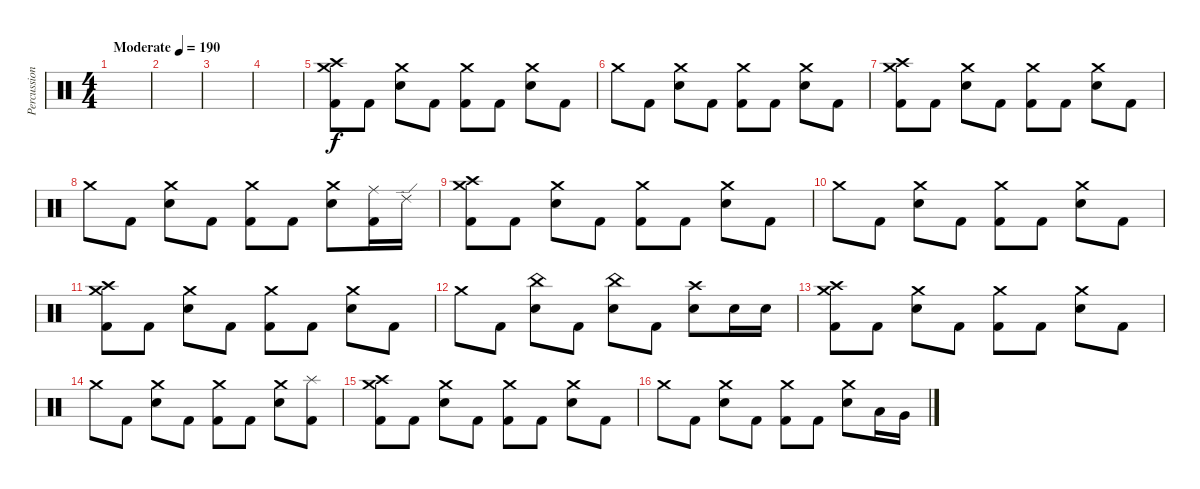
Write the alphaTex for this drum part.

\track ("Percussion" "Percussion") {instrument percussion}
\staff {score}
\articulation defaults
\ts (4 4)
\tempo (190 "Moderate")
\clef neutral
\ks c
|
|
|
|
("Crash high (hit)" "Crash medium (hit)" "Kick (hit) 2").8 "Kick (hit) 2".8 ("Crash medium (hit)" "Electric Snare (hit)").8 "Kick (hit) 2".8 ("Crash medium (hit)" "Kick (hit) 2").8 "Kick (hit) 2".8 ("Crash medium (hit)" "Electric Snare (hit)").8 "Kick (hit) 2".8 |
"Crash medium (hit)".8 "Kick (hit) 2".8 ("Crash medium (hit)" "Electric Snare (hit)").8 "Kick (hit) 2".8 ("Crash medium (hit)" "Kick (hit) 2").8 "Kick (hit) 2".8 ("Crash medium (hit)" "Electric Snare (hit)").8 "Kick (hit) 2".8 |
("Crash high (hit)" "Crash medium (hit)" "Kick (hit) 2").8 "Kick (hit) 2".8 ("Crash medium (hit)" "Electric Snare (hit)").8 "Kick (hit) 2".8 ("Crash medium (hit)" "Kick (hit) 2").8 "Kick (hit) 2".8 ("Crash medium (hit)" "Electric Snare (hit)").8 "Kick (hit) 2".8 |
"Crash medium (hit)".8 "Kick (hit) 2".8 ("Crash medium (hit)" "Electric Snare (hit)").8 "Kick (hit) 2".8 ("Crash medium (hit)" "Kick (hit) 2").8 "Kick (hit) 2".8 ("Crash medium (hit)" "Electric Snare (hit)").8 ("Ride (middle)" "Kick (hit) 2").16 "Ride (edge) 2".16 |
("Crash high (hit)" "Crash medium (hit)" "Kick (hit) 2").8 "Kick (hit) 2".8 ("Crash medium (hit)" "Electric Snare (hit)").8 "Kick (hit) 2".8 ("Crash medium (hit)" "Kick (hit) 2").8 "Kick (hit) 2".8 ("Crash medium (hit)" "Electric Snare (hit)").8 "Kick (hit) 2".8 |
"Crash medium (hit)".8 "Kick (hit) 2".8 ("Crash medium (hit)" "Electric Snare (hit)").8 "Kick (hit) 2".8 ("Crash medium (hit)" "Kick (hit) 2").8 "Kick (hit) 2".8 ("Crash medium (hit)" "Electric Snare (hit)").8 "Kick (hit) 2".8 |
("Crash high (hit)" "Crash medium (hit)" "Kick (hit) 2").8 "Kick (hit) 2".8 ("Crash medium (hit)" "Electric Snare (hit)").8 "Kick (hit) 2".8 ("Crash medium (hit)" "Kick (hit) 2").8 "Kick (hit) 2".8 ("Crash medium (hit)" "Electric Snare (hit)").8 "Kick (hit) 2".8 |
"Crash medium (hit)".8 "Kick (hit) 2".8 ("China (hit)" "Electric Snare (hit)").8 "Kick (hit) 2".8 ("China (hit)" "Electric Snare (hit)").8 "Kick (hit) 2".8 ("Crash high (hit)" "Electric Snare (hit)").8 "Electric Snare (hit)".16 "Electric Snare (hit)".16 |
("Crash high (hit)" "Crash medium (hit)" "Kick (hit) 2").8 "Kick (hit) 2".8 ("Crash medium (hit)" "Electric Snare (hit)").8 "Kick (hit) 2".8 ("Crash medium (hit)" "Kick (hit) 2").8 "Kick (hit) 2".8 ("Crash medium (hit)" "Electric Snare (hit)").8 "Kick (hit) 2".8 |
"Crash medium (hit)".8 "Kick (hit) 2".8 ("Crash medium (hit)" "Electric Snare (hit)").8 "Kick (hit) 2".8 ("Crash medium (hit)" "Kick (hit) 2").8 "Kick (hit) 2".8 ("Crash medium (hit)" "Electric Snare (hit)").8 ("Splash (hit)" "Kick (hit) 2").8 |
("Crash high (hit)" "Crash medium (hit)" "Kick (hit) 2").8 "Kick (hit) 2".8 ("Crash medium (hit)" "Electric Snare (hit)").8 "Kick (hit) 2".8 ("Crash medium (hit)" "Kick (hit) 2").8 "Kick (hit) 2".8 ("Crash medium (hit)" "Electric Snare (hit)").8 "Kick (hit) 2".8 |
"Crash medium (hit)".8 "Kick (hit) 2".8 ("Crash medium (hit)" "Electric Snare (hit)").8 "Kick (hit) 2".8 ("Crash medium (hit)" "Kick (hit) 2").8 "Kick (hit) 2".8 ("Crash medium (hit)" "Electric Snare (hit)").8 "Low Tom (hit)".16 "Very Low Tom (hit)".16
